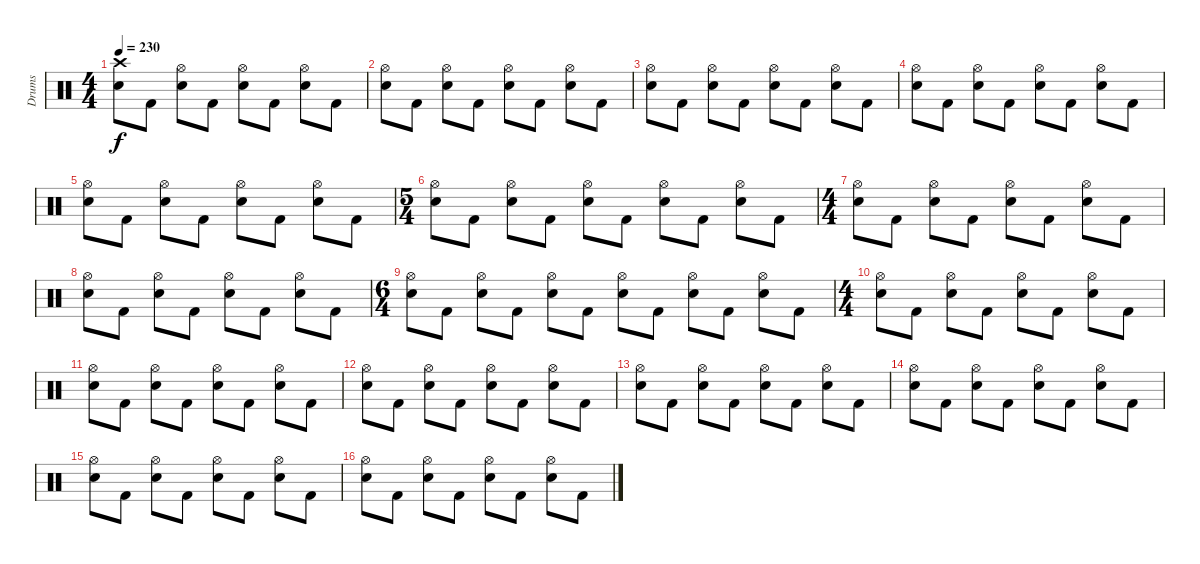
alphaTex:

\track ("Drums" "Drums") {instrument percussion}
\staff {score}
\articulation defaults
\ts (4 4)
\tempo 230
\clef neutral
\ks c
("Crash high (hit)" "Electric Snare (hit)").8{dy f} "Kick (hit) 2".8 ("Hi-Hat (open)" "Electric Snare (hit)").8 "Kick (hit) 2".8 ("Hi-Hat (open)" "Electric Snare (hit)").8 "Kick (hit) 2".8 ("Hi-Hat (open)" "Electric Snare (hit)").8 "Kick (hit) 2".8 |
("Hi-Hat (open)" "Electric Snare (hit)").8 "Kick (hit) 2".8 ("Hi-Hat (open)" "Electric Snare (hit)").8 "Kick (hit) 2".8 ("Hi-Hat (open)" "Electric Snare (hit)").8 "Kick (hit) 2".8 ("Hi-Hat (open)" "Electric Snare (hit)").8 "Kick (hit) 2".8 |
("Hi-Hat (open)" "Electric Snare (hit)").8 "Kick (hit) 2".8 ("Hi-Hat (open)" "Electric Snare (hit)").8 "Kick (hit) 2".8 ("Hi-Hat (open)" "Electric Snare (hit)").8 "Kick (hit) 2".8 ("Hi-Hat (open)" "Electric Snare (hit)").8 "Kick (hit) 2".8 |
("Hi-Hat (open)" "Electric Snare (hit)").8 "Kick (hit) 2".8 ("Hi-Hat (open)" "Electric Snare (hit)").8 "Kick (hit) 2".8 ("Hi-Hat (open)" "Electric Snare (hit)").8 "Kick (hit) 2".8 ("Hi-Hat (open)" "Electric Snare (hit)").8 "Kick (hit) 2".8 |
("Hi-Hat (open)" "Electric Snare (hit)").8 "Kick (hit) 2".8 ("Hi-Hat (open)" "Electric Snare (hit)").8 "Kick (hit) 2".8 ("Hi-Hat (open)" "Electric Snare (hit)").8 "Kick (hit) 2".8 ("Hi-Hat (open)" "Electric Snare (hit)").8 "Kick (hit) 2".8 |
\ts (5 4)
("Hi-Hat (open)" "Electric Snare (hit)").8 "Kick (hit) 2".8 ("Hi-Hat (open)" "Electric Snare (hit)").8 "Kick (hit) 2".8 ("Hi-Hat (open)" "Electric Snare (hit)").8 "Kick (hit) 2".8 ("Hi-Hat (open)" "Electric Snare (hit)").8 "Kick (hit) 2".8 ("Hi-Hat (open)" "Electric Snare (hit)").8 "Kick (hit) 2".8 |
\ts (4 4)
("Hi-Hat (open)" "Electric Snare (hit)").8 "Kick (hit) 2".8 ("Hi-Hat (open)" "Electric Snare (hit)").8 "Kick (hit) 2".8 ("Hi-Hat (open)" "Electric Snare (hit)").8 "Kick (hit) 2".8 ("Hi-Hat (open)" "Electric Snare (hit)").8 "Kick (hit) 2".8 |
("Hi-Hat (open)" "Electric Snare (hit)").8 "Kick (hit) 2".8 ("Hi-Hat (open)" "Electric Snare (hit)").8 "Kick (hit) 2".8 ("Hi-Hat (open)" "Electric Snare (hit)").8 "Kick (hit) 2".8 ("Hi-Hat (open)" "Electric Snare (hit)").8 "Kick (hit) 2".8 |
\ts (6 4)
("Hi-Hat (open)" "Electric Snare (hit)").8 "Kick (hit) 2".8 ("Hi-Hat (open)" "Electric Snare (hit)").8 "Kick (hit) 2".8 ("Hi-Hat (open)" "Electric Snare (hit)").8 "Kick (hit) 2".8 ("Hi-Hat (open)" "Electric Snare (hit)").8 "Kick (hit) 2".8 ("Hi-Hat (open)" "Electric Snare (hit)").8 "Kick (hit) 2".8 ("Hi-Hat (open)" "Electric Snare (hit)").8 "Kick (hit) 2".8 |
\ts (4 4)
("Hi-Hat (open)" "Electric Snare (hit)").8 "Kick (hit) 2".8 ("Hi-Hat (open)" "Electric Snare (hit)").8 "Kick (hit) 2".8 ("Hi-Hat (open)" "Electric Snare (hit)").8 "Kick (hit) 2".8 ("Hi-Hat (open)" "Electric Snare (hit)").8 "Kick (hit) 2".8 |
("Hi-Hat (open)" "Electric Snare (hit)").8 "Kick (hit) 2".8 ("Hi-Hat (open)" "Electric Snare (hit)").8 "Kick (hit) 2".8 ("Hi-Hat (open)" "Electric Snare (hit)").8 "Kick (hit) 2".8 ("Hi-Hat (open)" "Electric Snare (hit)").8 "Kick (hit) 2".8 |
("Hi-Hat (open)" "Electric Snare (hit)").8 "Kick (hit) 2".8 ("Hi-Hat (open)" "Electric Snare (hit)").8 "Kick (hit) 2".8 ("Hi-Hat (open)" "Electric Snare (hit)").8 "Kick (hit) 2".8 ("Hi-Hat (open)" "Electric Snare (hit)").8 "Kick (hit) 2".8 |
("Hi-Hat (open)" "Electric Snare (hit)").8 "Kick (hit) 2".8 ("Hi-Hat (open)" "Electric Snare (hit)").8 "Kick (hit) 2".8 ("Hi-Hat (open)" "Electric Snare (hit)").8 "Kick (hit) 2".8 ("Hi-Hat (open)" "Electric Snare (hit)").8 "Kick (hit) 2".8 |
("Hi-Hat (open)" "Electric Snare (hit)").8 "Kick (hit) 2".8 ("Hi-Hat (open)" "Electric Snare (hit)").8 "Kick (hit) 2".8 ("Hi-Hat (open)" "Electric Snare (hit)").8 "Kick (hit) 2".8 ("Hi-Hat (open)" "Electric Snare (hit)").8 "Kick (hit) 2".8 |
("Hi-Hat (open)" "Electric Snare (hit)").8 "Kick (hit) 2".8 ("Hi-Hat (open)" "Electric Snare (hit)").8 "Kick (hit) 2".8 ("Hi-Hat (open)" "Electric Snare (hit)").8 "Kick (hit) 2".8 ("Hi-Hat (open)" "Electric Snare (hit)").8 "Kick (hit) 2".8 |
("Hi-Hat (open)" "Electric Snare (hit)").8 "Kick (hit) 2".8 ("Hi-Hat (open)" "Electric Snare (hit)").8 "Kick (hit) 2".8 ("Hi-Hat (open)" "Electric Snare (hit)").8 "Kick (hit) 2".8 ("Hi-Hat (open)" "Electric Snare (hit)").8 "Kick (hit) 2".8
